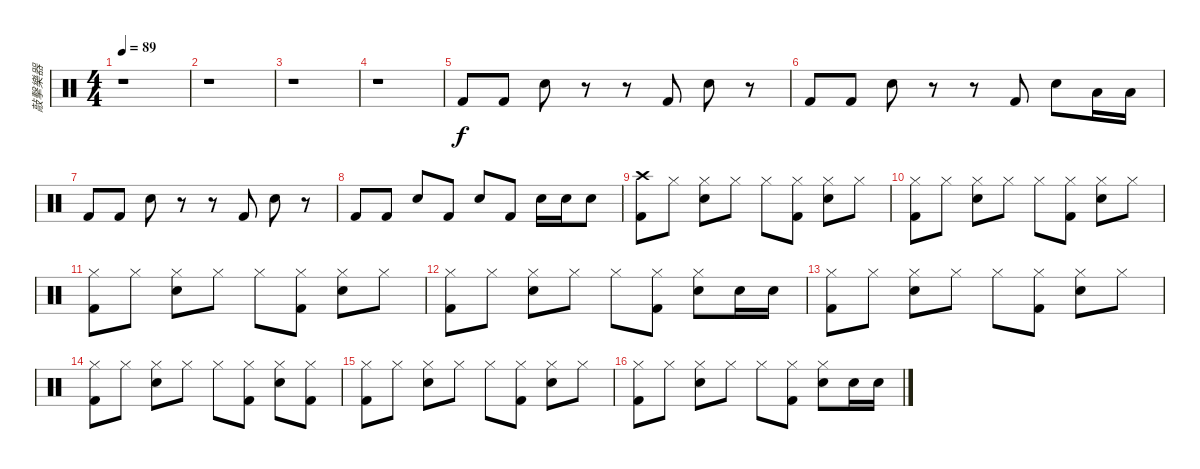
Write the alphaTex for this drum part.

\track ("敲擊樂器" "敲擊樂器") {instrument percussion}
\staff {score}
\articulation defaults
\ts (4 4)
\tempo 89
\clef neutral
\ks c
r.1{dy f} |
r.1 |
r.1 |
r.1 |
"Kick (hit) 2".8 "Kick (hit) 2".8 "Snare (hit) 2".8 r.8 r.8 "Kick (hit) 2".8 "Snare (hit) 2".8 r.8 |
"Kick (hit) 2".8 "Kick (hit) 2".8 "Snare (hit) 2".8 r.8 r.8 "Kick (hit) 2".8 "Snare (hit) 2".8 "Low Tom (hit)".16 "Low Tom (hit)".16 |
"Kick (hit) 2".8 "Kick (hit) 2".8 "Snare (hit) 2".8 r.8 r.8 "Kick (hit) 2".8 "Snare (hit) 2".8 r.8 |
"Kick (hit) 2".8 "Kick (hit) 2".8 "Snare (hit) 2".8 "Kick (hit) 2".8 "Snare (hit) 2".8 "Kick (hit) 2".8 "Snare (hit) 2".16 "Snare (hit) 2".16 "Snare (hit) 2".8 |
("Crash high (hit)" "Kick (hit) 2").8 "Hi-Hat (closed)".8 ("Hi-Hat (closed)" "Snare (hit) 2").8 "Hi-Hat (closed)".8 "Hi-Hat (closed)".8 ("Hi-Hat (closed)" "Kick (hit) 2").8 ("Hi-Hat (closed)" "Snare (hit) 2").8 "Hi-Hat (closed)".8 |
("Hi-Hat (closed)" "Kick (hit) 2").8 "Hi-Hat (closed)".8 ("Hi-Hat (closed)" "Snare (hit) 2").8 "Hi-Hat (closed)".8 "Hi-Hat (closed)".8 ("Hi-Hat (closed)" "Kick (hit) 2").8 ("Hi-Hat (closed)" "Snare (hit) 2").8 "Hi-Hat (closed)".8 |
("Hi-Hat (closed)" "Kick (hit) 2").8 "Hi-Hat (closed)".8 ("Hi-Hat (closed)" "Snare (hit) 2").8 "Hi-Hat (closed)".8 "Hi-Hat (closed)".8 ("Hi-Hat (closed)" "Kick (hit) 2").8 ("Hi-Hat (closed)" "Snare (hit) 2").8 "Hi-Hat (closed)".8 |
("Hi-Hat (closed)" "Kick (hit) 2").8 "Hi-Hat (closed)".8 ("Hi-Hat (closed)" "Snare (hit) 2").8 "Hi-Hat (closed)".8 "Hi-Hat (closed)".8 ("Hi-Hat (closed)" "Kick (hit) 2").8 ("Hi-Hat (closed)" "Snare (hit) 2").8 "Snare (hit) 2".16 "Snare (hit) 2".16 |
("Hi-Hat (closed)" "Kick (hit) 2").8 "Hi-Hat (closed)".8 ("Hi-Hat (closed)" "Snare (hit) 2").8 "Hi-Hat (closed)".8 "Hi-Hat (closed)".8 ("Hi-Hat (closed)" "Kick (hit) 2").8 ("Hi-Hat (closed)" "Snare (hit) 2").8 "Hi-Hat (closed)".8 |
("Hi-Hat (closed)" "Kick (hit) 2").8 "Hi-Hat (closed)".8 ("Hi-Hat (closed)" "Snare (hit) 2").8 "Hi-Hat (closed)".8 "Hi-Hat (closed)".8 ("Hi-Hat (closed)" "Kick (hit) 2").8 ("Hi-Hat (closed)" "Snare (hit) 2").8 ("Hi-Hat (closed)" "Kick (hit) 2").8 |
("Hi-Hat (closed)" "Kick (hit) 2").8 "Hi-Hat (closed)".8 ("Hi-Hat (closed)" "Snare (hit) 2").8 "Hi-Hat (closed)".8 "Hi-Hat (closed)".8 ("Hi-Hat (closed)" "Kick (hit) 2").8 ("Hi-Hat (closed)" "Snare (hit) 2").8 "Hi-Hat (closed)".8 |
("Hi-Hat (closed)" "Kick (hit) 2").8 "Hi-Hat (closed)".8 ("Hi-Hat (closed)" "Snare (hit) 2").8 "Hi-Hat (closed)".8 "Hi-Hat (closed)".8 ("Hi-Hat (closed)" "Kick (hit) 2").8 ("Hi-Hat (closed)" "Snare (hit) 2").8 "Snare (hit) 2".16 "Snare (hit) 2".16
